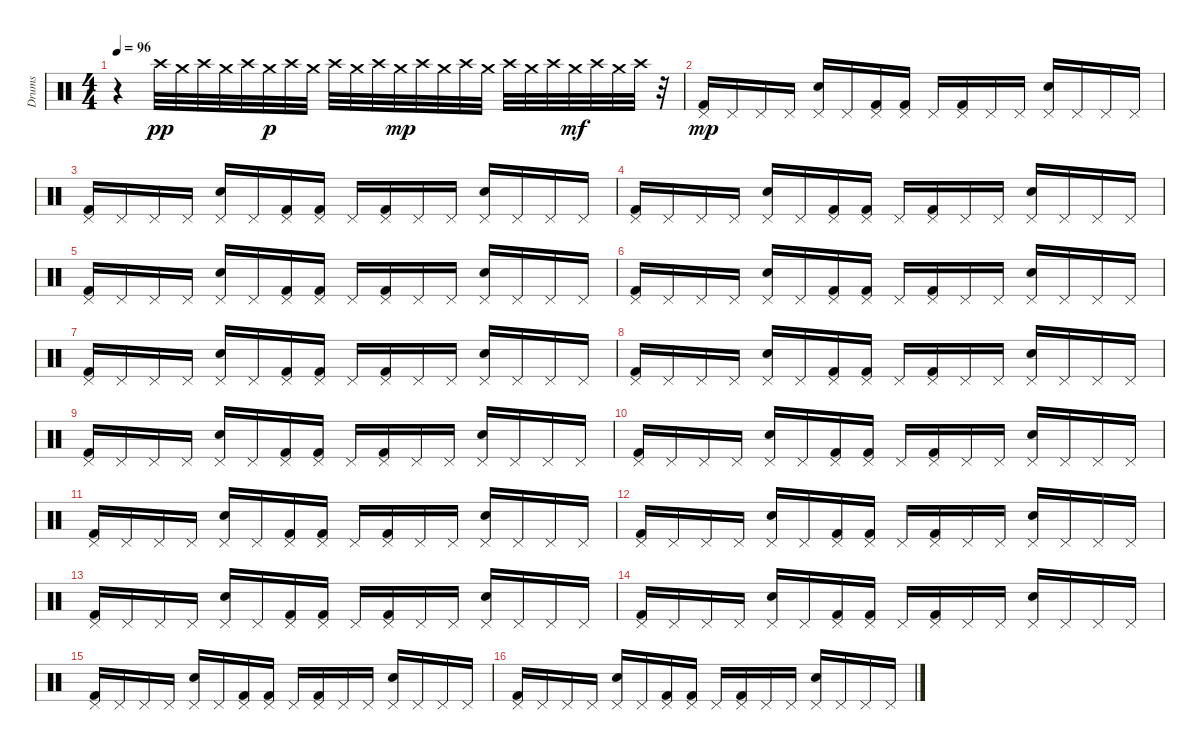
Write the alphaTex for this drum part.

\track ("Drums" "Drums") {instrument percussion}
\staff {score}
\articulation defaults
\ts (4 4)
\tempo 96
\clef neutral
\ks c
r.4{dy pp} "Crash high (hit)".32 "Crash medium (hit)".32 "Crash high (hit)".32 "Crash medium (hit)".32 "Crash high (hit)".32 "Crash medium (hit)".32{dy p} "Crash high (hit)".32 "Crash medium (hit)".32 "Crash high (hit)".32 "Crash medium (hit)".32 "Crash high (hit)".32 "Crash medium (hit)".32{dy mp} "Crash high (hit)".32 "Crash medium (hit)".32 "Crash high (hit)".32 "Crash medium (hit)".32 "Crash high (hit)".32 "Crash medium (hit)".32 "Crash high (hit)".32 "Crash medium (hit)".32{dy mf} "Crash high (hit)".32 "Crash medium (hit)".32 "Crash high (hit)".32 r.32 |
("Pedal Hi-Hat (hit)" "Kick (hit) 2").16{dy mp} "Pedal Hi-Hat (hit)".16 "Pedal Hi-Hat (hit)".16 "Pedal Hi-Hat (hit)".16 ("Electric Snare (hit)" "Pedal Hi-Hat (hit)").16 "Pedal Hi-Hat (hit)".16 ("Pedal Hi-Hat (hit)" "Kick (hit) 2").16 ("Pedal Hi-Hat (hit)" "Kick (hit) 2").16 "Pedal Hi-Hat (hit)".16 ("Pedal Hi-Hat (hit)" "Kick (hit) 2").16 "Pedal Hi-Hat (hit)".16 "Pedal Hi-Hat (hit)".16 ("Electric Snare (hit)" "Pedal Hi-Hat (hit)").16 "Pedal Hi-Hat (hit)".16 "Pedal Hi-Hat (hit)".16 "Pedal Hi-Hat (hit)".16 |
("Pedal Hi-Hat (hit)" "Kick (hit) 2").16 "Pedal Hi-Hat (hit)".16 "Pedal Hi-Hat (hit)".16 "Pedal Hi-Hat (hit)".16 ("Electric Snare (hit)" "Pedal Hi-Hat (hit)").16 "Pedal Hi-Hat (hit)".16 ("Pedal Hi-Hat (hit)" "Kick (hit) 2").16 ("Pedal Hi-Hat (hit)" "Kick (hit) 2").16 "Pedal Hi-Hat (hit)".16 ("Pedal Hi-Hat (hit)" "Kick (hit) 2").16 "Pedal Hi-Hat (hit)".16 "Pedal Hi-Hat (hit)".16 ("Electric Snare (hit)" "Pedal Hi-Hat (hit)").16 "Pedal Hi-Hat (hit)".16 "Pedal Hi-Hat (hit)".16 "Pedal Hi-Hat (hit)".16 |
("Pedal Hi-Hat (hit)" "Kick (hit) 2").16 "Pedal Hi-Hat (hit)".16 "Pedal Hi-Hat (hit)".16 "Pedal Hi-Hat (hit)".16 ("Electric Snare (hit)" "Pedal Hi-Hat (hit)").16 "Pedal Hi-Hat (hit)".16 ("Pedal Hi-Hat (hit)" "Kick (hit) 2").16 ("Pedal Hi-Hat (hit)" "Kick (hit) 2").16 "Pedal Hi-Hat (hit)".16 ("Pedal Hi-Hat (hit)" "Kick (hit) 2").16 "Pedal Hi-Hat (hit)".16 "Pedal Hi-Hat (hit)".16 ("Electric Snare (hit)" "Pedal Hi-Hat (hit)").16 "Pedal Hi-Hat (hit)".16 "Pedal Hi-Hat (hit)".16 "Pedal Hi-Hat (hit)".16 |
("Pedal Hi-Hat (hit)" "Kick (hit) 2").16 "Pedal Hi-Hat (hit)".16 "Pedal Hi-Hat (hit)".16 "Pedal Hi-Hat (hit)".16 ("Electric Snare (hit)" "Pedal Hi-Hat (hit)").16 "Pedal Hi-Hat (hit)".16 ("Pedal Hi-Hat (hit)" "Kick (hit) 2").16 ("Pedal Hi-Hat (hit)" "Kick (hit) 2").16 "Pedal Hi-Hat (hit)".16 ("Pedal Hi-Hat (hit)" "Kick (hit) 2").16 "Pedal Hi-Hat (hit)".16 "Pedal Hi-Hat (hit)".16 ("Electric Snare (hit)" "Pedal Hi-Hat (hit)").16 "Pedal Hi-Hat (hit)".16 "Pedal Hi-Hat (hit)".16 "Pedal Hi-Hat (hit)".16 |
("Pedal Hi-Hat (hit)" "Kick (hit) 2").16 "Pedal Hi-Hat (hit)".16 "Pedal Hi-Hat (hit)".16 "Pedal Hi-Hat (hit)".16 ("Electric Snare (hit)" "Pedal Hi-Hat (hit)").16 "Pedal Hi-Hat (hit)".16 ("Pedal Hi-Hat (hit)" "Kick (hit) 2").16 ("Pedal Hi-Hat (hit)" "Kick (hit) 2").16 "Pedal Hi-Hat (hit)".16 ("Pedal Hi-Hat (hit)" "Kick (hit) 2").16 "Pedal Hi-Hat (hit)".16 "Pedal Hi-Hat (hit)".16 ("Electric Snare (hit)" "Pedal Hi-Hat (hit)").16 "Pedal Hi-Hat (hit)".16 "Pedal Hi-Hat (hit)".16 "Pedal Hi-Hat (hit)".16 |
("Pedal Hi-Hat (hit)" "Kick (hit) 2").16 "Pedal Hi-Hat (hit)".16 "Pedal Hi-Hat (hit)".16 "Pedal Hi-Hat (hit)".16 ("Electric Snare (hit)" "Pedal Hi-Hat (hit)").16 "Pedal Hi-Hat (hit)".16 ("Pedal Hi-Hat (hit)" "Kick (hit) 2").16 ("Pedal Hi-Hat (hit)" "Kick (hit) 2").16 "Pedal Hi-Hat (hit)".16 ("Pedal Hi-Hat (hit)" "Kick (hit) 2").16 "Pedal Hi-Hat (hit)".16 "Pedal Hi-Hat (hit)".16 ("Electric Snare (hit)" "Pedal Hi-Hat (hit)").16 "Pedal Hi-Hat (hit)".16 "Pedal Hi-Hat (hit)".16 "Pedal Hi-Hat (hit)".16 |
("Pedal Hi-Hat (hit)" "Kick (hit) 2").16 "Pedal Hi-Hat (hit)".16 "Pedal Hi-Hat (hit)".16 "Pedal Hi-Hat (hit)".16 ("Electric Snare (hit)" "Pedal Hi-Hat (hit)").16 "Pedal Hi-Hat (hit)".16 ("Pedal Hi-Hat (hit)" "Kick (hit) 2").16 ("Pedal Hi-Hat (hit)" "Kick (hit) 2").16 "Pedal Hi-Hat (hit)".16 ("Pedal Hi-Hat (hit)" "Kick (hit) 2").16 "Pedal Hi-Hat (hit)".16 "Pedal Hi-Hat (hit)".16 ("Electric Snare (hit)" "Pedal Hi-Hat (hit)").16 "Pedal Hi-Hat (hit)".16 "Pedal Hi-Hat (hit)".16 "Pedal Hi-Hat (hit)".16 |
("Pedal Hi-Hat (hit)" "Kick (hit) 2").16 "Pedal Hi-Hat (hit)".16 "Pedal Hi-Hat (hit)".16 "Pedal Hi-Hat (hit)".16 ("Electric Snare (hit)" "Pedal Hi-Hat (hit)").16 "Pedal Hi-Hat (hit)".16 ("Pedal Hi-Hat (hit)" "Kick (hit) 2").16 ("Pedal Hi-Hat (hit)" "Kick (hit) 2").16 "Pedal Hi-Hat (hit)".16 ("Pedal Hi-Hat (hit)" "Kick (hit) 2").16 "Pedal Hi-Hat (hit)".16 "Pedal Hi-Hat (hit)".16 ("Electric Snare (hit)" "Pedal Hi-Hat (hit)").16 "Pedal Hi-Hat (hit)".16 "Pedal Hi-Hat (hit)".16 "Pedal Hi-Hat (hit)".16 |
("Pedal Hi-Hat (hit)" "Kick (hit) 2").16 "Pedal Hi-Hat (hit)".16 "Pedal Hi-Hat (hit)".16 "Pedal Hi-Hat (hit)".16 ("Electric Snare (hit)" "Pedal Hi-Hat (hit)").16 "Pedal Hi-Hat (hit)".16 ("Pedal Hi-Hat (hit)" "Kick (hit) 2").16 ("Pedal Hi-Hat (hit)" "Kick (hit) 2").16 "Pedal Hi-Hat (hit)".16 ("Pedal Hi-Hat (hit)" "Kick (hit) 2").16 "Pedal Hi-Hat (hit)".16 "Pedal Hi-Hat (hit)".16 ("Electric Snare (hit)" "Pedal Hi-Hat (hit)").16 "Pedal Hi-Hat (hit)".16 "Pedal Hi-Hat (hit)".16 "Pedal Hi-Hat (hit)".16 |
("Pedal Hi-Hat (hit)" "Kick (hit) 2").16 "Pedal Hi-Hat (hit)".16 "Pedal Hi-Hat (hit)".16 "Pedal Hi-Hat (hit)".16 ("Electric Snare (hit)" "Pedal Hi-Hat (hit)").16 "Pedal Hi-Hat (hit)".16 ("Pedal Hi-Hat (hit)" "Kick (hit) 2").16 ("Pedal Hi-Hat (hit)" "Kick (hit) 2").16 "Pedal Hi-Hat (hit)".16 ("Pedal Hi-Hat (hit)" "Kick (hit) 2").16 "Pedal Hi-Hat (hit)".16 "Pedal Hi-Hat (hit)".16 ("Electric Snare (hit)" "Pedal Hi-Hat (hit)").16 "Pedal Hi-Hat (hit)".16 "Pedal Hi-Hat (hit)".16 "Pedal Hi-Hat (hit)".16 |
("Pedal Hi-Hat (hit)" "Kick (hit) 2").16 "Pedal Hi-Hat (hit)".16 "Pedal Hi-Hat (hit)".16 "Pedal Hi-Hat (hit)".16 ("Electric Snare (hit)" "Pedal Hi-Hat (hit)").16 "Pedal Hi-Hat (hit)".16 ("Pedal Hi-Hat (hit)" "Kick (hit) 2").16 ("Pedal Hi-Hat (hit)" "Kick (hit) 2").16 "Pedal Hi-Hat (hit)".16 ("Pedal Hi-Hat (hit)" "Kick (hit) 2").16 "Pedal Hi-Hat (hit)".16 "Pedal Hi-Hat (hit)".16 ("Electric Snare (hit)" "Pedal Hi-Hat (hit)").16 "Pedal Hi-Hat (hit)".16 "Pedal Hi-Hat (hit)".16 "Pedal Hi-Hat (hit)".16 |
("Pedal Hi-Hat (hit)" "Kick (hit) 2").16 "Pedal Hi-Hat (hit)".16 "Pedal Hi-Hat (hit)".16 "Pedal Hi-Hat (hit)".16 ("Electric Snare (hit)" "Pedal Hi-Hat (hit)").16 "Pedal Hi-Hat (hit)".16 ("Pedal Hi-Hat (hit)" "Kick (hit) 2").16 ("Pedal Hi-Hat (hit)" "Kick (hit) 2").16 "Pedal Hi-Hat (hit)".16 ("Pedal Hi-Hat (hit)" "Kick (hit) 2").16 "Pedal Hi-Hat (hit)".16 "Pedal Hi-Hat (hit)".16 ("Electric Snare (hit)" "Pedal Hi-Hat (hit)").16 "Pedal Hi-Hat (hit)".16 "Pedal Hi-Hat (hit)".16 "Pedal Hi-Hat (hit)".16 |
("Pedal Hi-Hat (hit)" "Kick (hit) 2").16 "Pedal Hi-Hat (hit)".16 "Pedal Hi-Hat (hit)".16 "Pedal Hi-Hat (hit)".16 ("Electric Snare (hit)" "Pedal Hi-Hat (hit)").16 "Pedal Hi-Hat (hit)".16 ("Pedal Hi-Hat (hit)" "Kick (hit) 2").16 ("Pedal Hi-Hat (hit)" "Kick (hit) 2").16 "Pedal Hi-Hat (hit)".16 ("Pedal Hi-Hat (hit)" "Kick (hit) 2").16 "Pedal Hi-Hat (hit)".16 "Pedal Hi-Hat (hit)".16 ("Electric Snare (hit)" "Pedal Hi-Hat (hit)").16 "Pedal Hi-Hat (hit)".16 "Pedal Hi-Hat (hit)".16 "Pedal Hi-Hat (hit)".16 |
("Pedal Hi-Hat (hit)" "Kick (hit) 2").16 "Pedal Hi-Hat (hit)".16 "Pedal Hi-Hat (hit)".16 "Pedal Hi-Hat (hit)".16 ("Electric Snare (hit)" "Pedal Hi-Hat (hit)").16 "Pedal Hi-Hat (hit)".16 ("Pedal Hi-Hat (hit)" "Kick (hit) 2").16 ("Pedal Hi-Hat (hit)" "Kick (hit) 2").16 "Pedal Hi-Hat (hit)".16 ("Pedal Hi-Hat (hit)" "Kick (hit) 2").16 "Pedal Hi-Hat (hit)".16 "Pedal Hi-Hat (hit)".16 ("Electric Snare (hit)" "Pedal Hi-Hat (hit)").16 "Pedal Hi-Hat (hit)".16 "Pedal Hi-Hat (hit)".16 "Pedal Hi-Hat (hit)".16 |
("Pedal Hi-Hat (hit)" "Kick (hit) 2").16 "Pedal Hi-Hat (hit)".16 "Pedal Hi-Hat (hit)".16 "Pedal Hi-Hat (hit)".16 ("Electric Snare (hit)" "Pedal Hi-Hat (hit)").16 "Pedal Hi-Hat (hit)".16 ("Pedal Hi-Hat (hit)" "Kick (hit) 2").16 ("Pedal Hi-Hat (hit)" "Kick (hit) 2").16 "Pedal Hi-Hat (hit)".16 ("Pedal Hi-Hat (hit)" "Kick (hit) 2").16 "Pedal Hi-Hat (hit)".16 "Pedal Hi-Hat (hit)".16 ("Electric Snare (hit)" "Pedal Hi-Hat (hit)").16 "Pedal Hi-Hat (hit)".16 "Pedal Hi-Hat (hit)".16 "Pedal Hi-Hat (hit)".16
